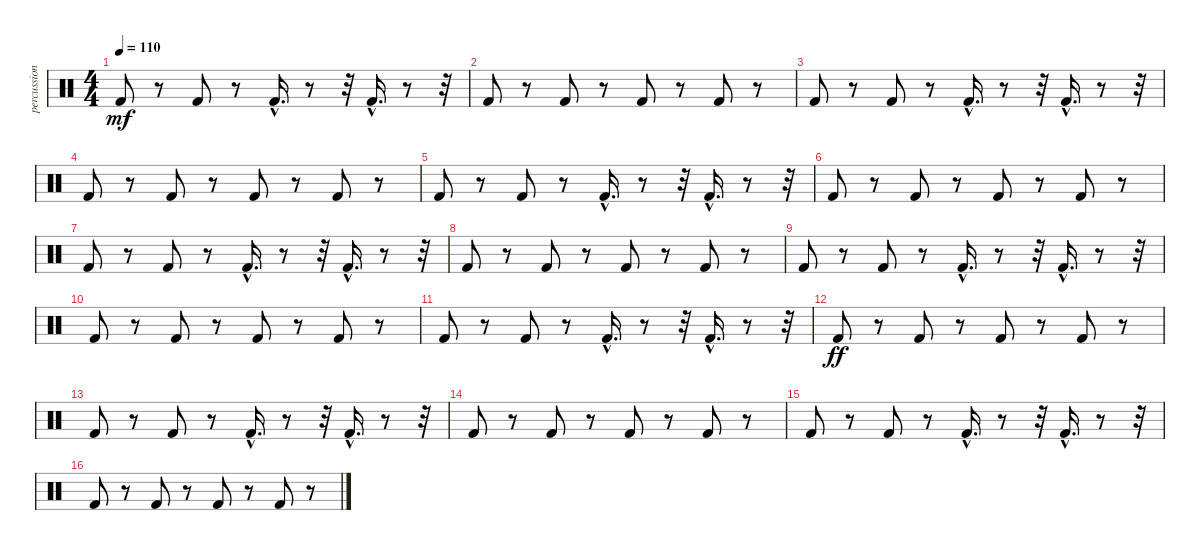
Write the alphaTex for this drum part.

\track ("percussions 1" "percussion") {instrument percussion}
\staff {score}
\articulation defaults
\ts (4 4)
\tempo 110
\clef neutral
\ks c "Kick (hit) 2".8{dy mf}
r.8 "Kick (hit) 2".8 r.8 "Kick (hit) 2"{hac}.16{d} r.8 r.32 "Kick (hit) 2"{hac}.16{d} r.8 r.32 |
"Kick (hit) 2".8 r.8 "Kick (hit) 2".8 r.8 "Kick (hit) 2".8 r.8 "Kick (hit) 2".8 r.8 |
"Kick (hit) 2".8 r.8 "Kick (hit) 2".8 r.8 "Kick (hit) 2"{hac}.16{d} r.8 r.32 "Kick (hit) 2"{hac}.16{d} r.8 r.32 |
"Kick (hit) 2".8 r.8 "Kick (hit) 2".8 r.8 "Kick (hit) 2".8 r.8 "Kick (hit) 2".8 r.8 |
"Kick (hit) 2".8 r.8 "Kick (hit) 2".8 r.8 "Kick (hit) 2"{hac}.16{d} r.8 r.32 "Kick (hit) 2"{hac}.16{d} r.8 r.32 |
"Kick (hit) 2".8 r.8 "Kick (hit) 2".8 r.8 "Kick (hit) 2".8 r.8 "Kick (hit) 2".8 r.8 |
"Kick (hit) 2".8 r.8 "Kick (hit) 2".8 r.8 "Kick (hit) 2"{hac}.16{d} r.8 r.32 "Kick (hit) 2"{hac}.16{d} r.8 r.32 |
"Kick (hit) 2".8 r.8 "Kick (hit) 2".8 r.8 "Kick (hit) 2".8 r.8 "Kick (hit) 2".8 r.8 |
"Kick (hit) 2".8 r.8 "Kick (hit) 2".8 r.8 "Kick (hit) 2"{hac}.16{d} r.8 r.32 "Kick (hit) 2"{hac}.16{d} r.8 r.32 |
"Kick (hit) 2".8 r.8 "Kick (hit) 2".8 r.8 "Kick (hit) 2".8 r.8 "Kick (hit) 2".8 r.8 |
"Kick (hit) 2".8 r.8 "Kick (hit) 2".8 r.8 "Kick (hit) 2"{hac}.16{d} r.8 r.32 "Kick (hit) 2"{hac}.16{d} r.8 r.32 |
"Kick (hit) 2".8{dy ff} r.8 "Kick (hit) 2".8 r.8 "Kick (hit) 2".8 r.8 "Kick (hit) 2".8 r.8 |
"Kick (hit) 2".8 r.8 "Kick (hit) 2".8 r.8 "Kick (hit) 2"{hac}.16{d} r.8 r.32 "Kick (hit) 2"{hac}.16{d} r.8 r.32 |
"Kick (hit) 2".8 r.8 "Kick (hit) 2".8 r.8 "Kick (hit) 2".8 r.8 "Kick (hit) 2".8 r.8 |
"Kick (hit) 2".8 r.8 "Kick (hit) 2".8 r.8 "Kick (hit) 2"{hac}.16{d} r.8 r.32 "Kick (hit) 2"{hac}.16{d} r.8 r.32 |
"Kick (hit) 2".8 r.8 "Kick (hit) 2".8 r.8 "Kick (hit) 2".8 r.8 "Kick (hit) 2".8 r.8
